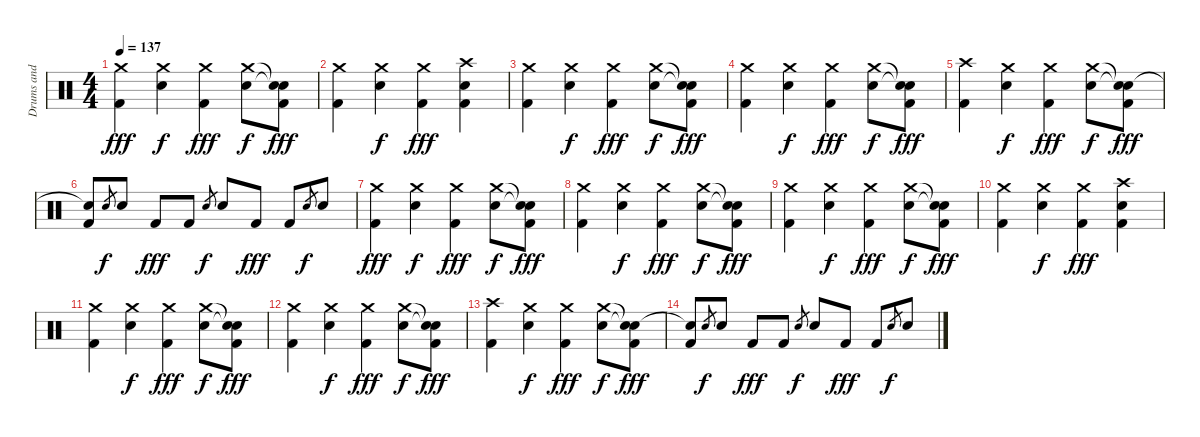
\track ("Drums and Percussion" "Drums and ") {instrument percussion}
\staff {score}
\articulation defaults
\ts (4 4)
\tempo 137
\clef neutral
\ks c
("Crash medium (hit)" "Kick (hit) 2").4{dy fff} ("Crash medium (hit)" "Electric Snare (hit)").4{dy f} ("Crash medium (hit)" "Kick (hit) 2").4{dy fff} ("Crash medium (hit)" "Electric Snare (hit)").8{dy f} ("Snare (hit)"{t} "Snare (hit)"{t} "Kick (hit) 2").8{dy fff} |
("Crash medium (hit)" "Kick (hit) 2").4 ("Crash medium (hit)" "Electric Snare (hit)").4{dy f} ("Crash medium (hit)" "Kick (hit) 2").4{dy fff} ("Crash high (hit)" "Electric Snare (hit)" "Kick (hit) 2").4 |
("Crash medium (hit)" "Kick (hit) 2").4 ("Crash medium (hit)" "Electric Snare (hit)").4{dy f} ("Crash medium (hit)" "Kick (hit) 2").4{dy fff} ("Crash medium (hit)" "Electric Snare (hit)").8{dy f} ("Snare (hit)"{t} "Snare (hit)"{t} "Kick (hit) 2").8{dy fff} |
("Crash medium (hit)" "Kick (hit) 2").4 ("Crash medium (hit)" "Electric Snare (hit)").4{dy f} ("Crash medium (hit)" "Kick (hit) 2").4{dy fff} ("Crash medium (hit)" "Electric Snare (hit)").8{dy f} ("Snare (hit)"{t} "Snare (hit)"{t} "Kick (hit) 2").8{dy fff} |
("Crash high (hit)" "Kick (hit) 2").4 ("Crash medium (hit)" "Electric Snare (hit)").4{dy f} ("Crash medium (hit)" "Kick (hit) 2").4{dy fff} ("Crash medium (hit)" "Electric Snare (hit)").8{dy f} ("Snare (hit)"{t} "Snare (hit)"{t} "Kick (hit) 2").8{dy fff} |
("Snare (hit)"{t} "Kick (hit) 2").8 "Electric Snare (hit)".8{gr dy f} "Electric Snare (hit)".8 "Kick (hit) 2".8{dy fff} "Kick (hit) 2".8 "Electric Snare (hit)".8{gr dy f} "Electric Snare (hit)".8 "Kick (hit) 2".8{dy fff} "Kick (hit) 2".8 "Electric Snare (hit)".8{gr dy f} "Electric Snare (hit)".8 |
("Crash medium (hit)" "Kick (hit) 2").4{dy fff} ("Crash medium (hit)" "Electric Snare (hit)").4{dy f} ("Crash medium (hit)" "Kick (hit) 2").4{dy fff} ("Crash medium (hit)" "Electric Snare (hit)").8{dy f} ("Snare (hit)"{t} "Snare (hit)"{t} "Kick (hit) 2").8{dy fff} |
("Crash medium (hit)" "Kick (hit) 2").4 ("Crash medium (hit)" "Electric Snare (hit)").4{dy f} ("Crash medium (hit)" "Kick (hit) 2").4{dy fff} ("Crash medium (hit)" "Electric Snare (hit)").8{dy f} ("Snare (hit)"{t} "Snare (hit)"{t} "Kick (hit) 2").8{dy fff} |
("Crash medium (hit)" "Kick (hit) 2").4 ("Crash medium (hit)" "Electric Snare (hit)").4{dy f} ("Crash medium (hit)" "Kick (hit) 2").4{dy fff} ("Crash medium (hit)" "Electric Snare (hit)").8{dy f} ("Snare (hit)"{t} "Snare (hit)"{t} "Kick (hit) 2").8{dy fff} |
("Crash medium (hit)" "Kick (hit) 2").4 ("Crash medium (hit)" "Electric Snare (hit)").4{dy f} ("Crash medium (hit)" "Kick (hit) 2").4{dy fff} ("Crash high (hit)" "Electric Snare (hit)" "Kick (hit) 2").4 |
("Crash medium (hit)" "Kick (hit) 2").4 ("Crash medium (hit)" "Electric Snare (hit)").4{dy f} ("Crash medium (hit)" "Kick (hit) 2").4{dy fff} ("Crash medium (hit)" "Electric Snare (hit)").8{dy f} ("Snare (hit)"{t} "Snare (hit)"{t} "Kick (hit) 2").8{dy fff} |
("Crash medium (hit)" "Kick (hit) 2").4 ("Crash medium (hit)" "Electric Snare (hit)").4{dy f} ("Crash medium (hit)" "Kick (hit) 2").4{dy fff} ("Crash medium (hit)" "Electric Snare (hit)").8{dy f} ("Snare (hit)"{t} "Snare (hit)"{t} "Kick (hit) 2").8{dy fff} |
("Crash high (hit)" "Kick (hit) 2").4 ("Crash medium (hit)" "Electric Snare (hit)").4{dy f} ("Crash medium (hit)" "Kick (hit) 2").4{dy fff} ("Crash medium (hit)" "Electric Snare (hit)").8{dy f} ("Snare (hit)"{t} "Snare (hit)"{t} "Kick (hit) 2").8{dy fff} |
("Snare (hit)"{t} "Kick (hit) 2").8 "Electric Snare (hit)".8{gr dy f} "Electric Snare (hit)".8 "Kick (hit) 2".8{dy fff} "Kick (hit) 2".8 "Electric Snare (hit)".8{gr dy f} "Electric Snare (hit)".8 "Kick (hit) 2".8{dy fff} "Kick (hit) 2".8 "Electric Snare (hit)".8{gr dy f} "Electric Snare (hit)".8
